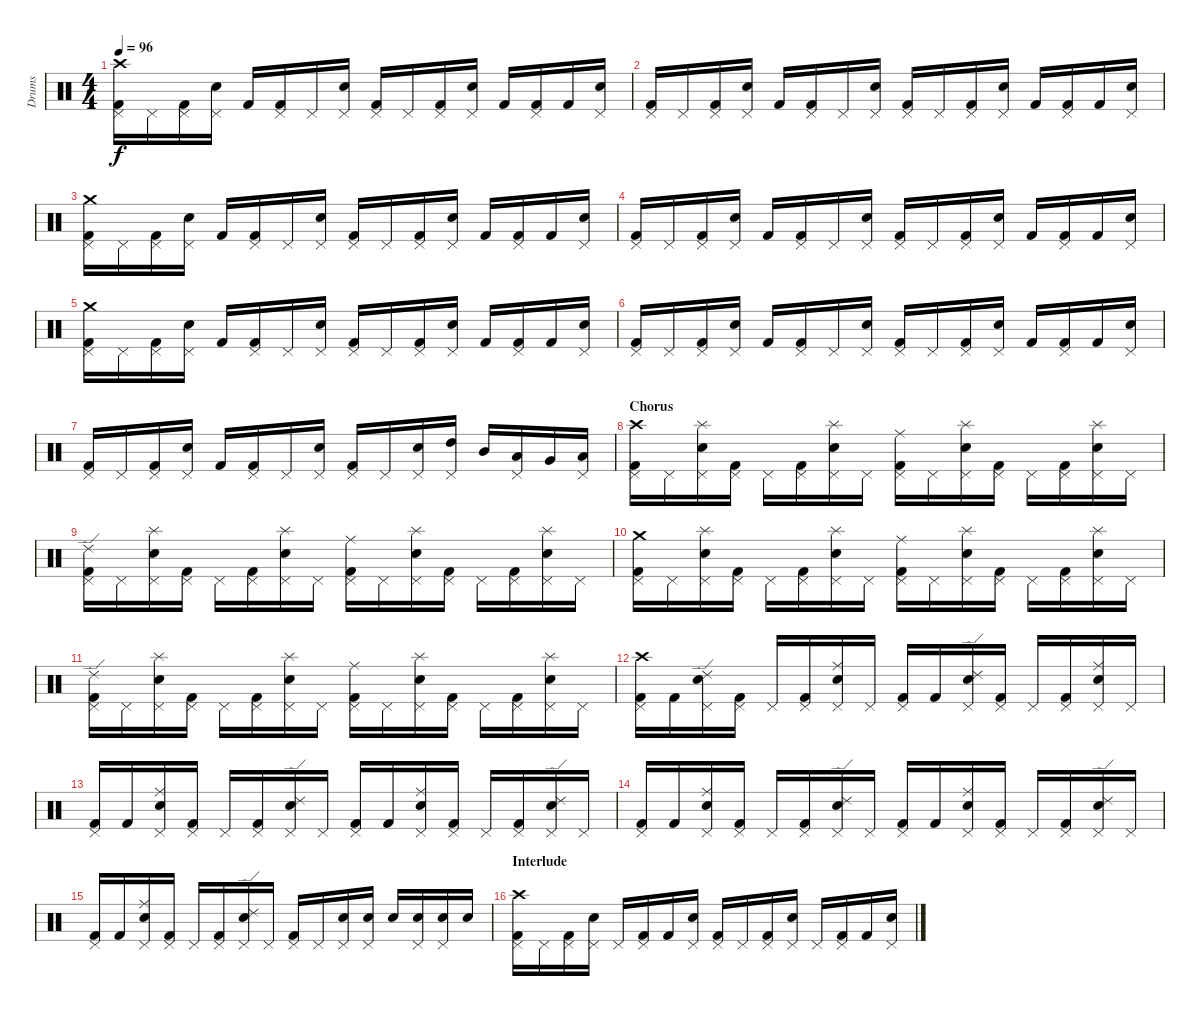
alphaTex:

\track ("Drums" "Drums") {instrument percussion}
\staff {score}
\articulation defaults
\ts (4 4)
\tempo 96
\clef neutral
\ks c
("Kick (hit) 2" "Pedal Hi-Hat (hit)" "Crash high (hit)").16{dy f} "Pedal Hi-Hat (hit)".16 ("Kick (hit) 2" "Pedal Hi-Hat (hit)").16 ("Snare (hit) 2" "Pedal Hi-Hat (hit)").16 "Kick (hit) 2".16 ("Kick (hit) 2" "Pedal Hi-Hat (hit)").16 "Pedal Hi-Hat (hit)".16 ("Snare (hit) 2" "Pedal Hi-Hat (hit)").16 ("Kick (hit) 2" "Pedal Hi-Hat (hit)").16 "Pedal Hi-Hat (hit)".16 ("Kick (hit) 2" "Pedal Hi-Hat (hit)").16 ("Snare (hit) 2" "Pedal Hi-Hat (hit)").16 "Kick (hit) 2".16 ("Kick (hit) 2" "Pedal Hi-Hat (hit)").16 "Kick (hit) 2".16 ("Snare (hit) 2" "Pedal Hi-Hat (hit)").16 |
("Kick (hit) 2" "Pedal Hi-Hat (hit)").16 "Pedal Hi-Hat (hit)".16 ("Kick (hit) 2" "Pedal Hi-Hat (hit)").16 ("Snare (hit) 2" "Pedal Hi-Hat (hit)").16 "Kick (hit) 2".16 ("Kick (hit) 2" "Pedal Hi-Hat (hit)").16 "Pedal Hi-Hat (hit)".16 ("Snare (hit) 2" "Pedal Hi-Hat (hit)").16 ("Kick (hit) 2" "Pedal Hi-Hat (hit)").16 "Pedal Hi-Hat (hit)".16 ("Kick (hit) 2" "Pedal Hi-Hat (hit)").16 ("Snare (hit) 2" "Pedal Hi-Hat (hit)").16 "Kick (hit) 2".16 ("Kick (hit) 2" "Pedal Hi-Hat (hit)").16 "Kick (hit) 2".16 ("Snare (hit) 2" "Pedal Hi-Hat (hit)").16 |
("Kick (hit) 2" "Pedal Hi-Hat (hit)" "Crash medium (hit)").16 "Pedal Hi-Hat (hit)".16 ("Kick (hit) 2" "Pedal Hi-Hat (hit)").16 ("Snare (hit) 2" "Pedal Hi-Hat (hit)").16 "Kick (hit) 2".16 ("Kick (hit) 2" "Pedal Hi-Hat (hit)").16 "Pedal Hi-Hat (hit)".16 ("Snare (hit) 2" "Pedal Hi-Hat (hit)").16 ("Kick (hit) 2" "Pedal Hi-Hat (hit)").16 "Pedal Hi-Hat (hit)".16 ("Kick (hit) 2" "Pedal Hi-Hat (hit)").16 ("Snare (hit) 2" "Pedal Hi-Hat (hit)").16 "Kick (hit) 2".16 ("Kick (hit) 2" "Pedal Hi-Hat (hit)").16 "Kick (hit) 2".16 ("Snare (hit) 2" "Pedal Hi-Hat (hit)").16 |
("Kick (hit) 2" "Pedal Hi-Hat (hit)").16 "Pedal Hi-Hat (hit)".16 ("Kick (hit) 2" "Pedal Hi-Hat (hit)").16 ("Snare (hit) 2" "Pedal Hi-Hat (hit)").16 "Kick (hit) 2".16 ("Kick (hit) 2" "Pedal Hi-Hat (hit)").16 "Pedal Hi-Hat (hit)".16 ("Snare (hit) 2" "Pedal Hi-Hat (hit)").16 ("Kick (hit) 2" "Pedal Hi-Hat (hit)").16 "Pedal Hi-Hat (hit)".16 ("Kick (hit) 2" "Pedal Hi-Hat (hit)").16 ("Snare (hit) 2" "Pedal Hi-Hat (hit)").16 "Kick (hit) 2".16 ("Kick (hit) 2" "Pedal Hi-Hat (hit)").16 "Kick (hit) 2".16 ("Snare (hit) 2" "Pedal Hi-Hat (hit)").16 |
("Kick (hit) 2" "Pedal Hi-Hat (hit)" "Crash medium (hit)").16 "Pedal Hi-Hat (hit)".16 ("Kick (hit) 2" "Pedal Hi-Hat (hit)").16 ("Snare (hit) 2" "Pedal Hi-Hat (hit)").16 "Kick (hit) 2".16 ("Kick (hit) 2" "Pedal Hi-Hat (hit)").16 "Pedal Hi-Hat (hit)".16 ("Snare (hit) 2" "Pedal Hi-Hat (hit)").16 ("Kick (hit) 2" "Pedal Hi-Hat (hit)").16 "Pedal Hi-Hat (hit)".16 ("Kick (hit) 2" "Pedal Hi-Hat (hit)").16 ("Snare (hit) 2" "Pedal Hi-Hat (hit)").16 "Kick (hit) 2".16 ("Kick (hit) 2" "Pedal Hi-Hat (hit)").16 "Kick (hit) 2".16 ("Snare (hit) 2" "Pedal Hi-Hat (hit)").16 |
("Kick (hit) 2" "Pedal Hi-Hat (hit)").16 "Pedal Hi-Hat (hit)".16 ("Kick (hit) 2" "Pedal Hi-Hat (hit)").16 ("Snare (hit) 2" "Pedal Hi-Hat (hit)").16 "Kick (hit) 2".16 ("Kick (hit) 2" "Pedal Hi-Hat (hit)").16 "Pedal Hi-Hat (hit)".16 ("Snare (hit) 2" "Pedal Hi-Hat (hit)").16 ("Kick (hit) 2" "Pedal Hi-Hat (hit)").16 "Pedal Hi-Hat (hit)".16 ("Kick (hit) 2" "Pedal Hi-Hat (hit)").16 ("Snare (hit) 2" "Pedal Hi-Hat (hit)").16 "Kick (hit) 2".16 ("Kick (hit) 2" "Pedal Hi-Hat (hit)").16 "Kick (hit) 2".16 ("Snare (hit) 2" "Pedal Hi-Hat (hit)").16 |
("Kick (hit) 2" "Pedal Hi-Hat (hit)").16 "Pedal Hi-Hat (hit)".16 ("Kick (hit) 2" "Pedal Hi-Hat (hit)").16 ("Snare (hit) 2" "Pedal Hi-Hat (hit)").16 "Kick (hit) 2".16 ("Kick (hit) 2" "Pedal Hi-Hat (hit)").16 "Pedal Hi-Hat (hit)".16 ("Snare (hit) 2" "Pedal Hi-Hat (hit)").16 ("Kick (hit) 2" "Pedal Hi-Hat (hit)").16 "Pedal Hi-Hat (hit)".16 ("Snare (hit) 2" "Pedal Hi-Hat (hit)").16 ("High Tom (hit)" "Pedal Hi-Hat (hit)").16 "Mid Tom (hit)".16 ("Low Tom (hit)" "Pedal Hi-Hat (hit)").16 "Very Low Tom (hit)".16 ("Low Floor Tom (hit)" "Pedal Hi-Hat (hit)").16 |
\section ("" "Chorus")
("Kick (hit) 2" "Pedal Hi-Hat (hit)" "Crash high (hit)").16 "Pedal Hi-Hat (hit)".16 ("Snare (hit) 2" "Pedal Hi-Hat (hit)" "Splash (hit)").16 ("Kick (hit) 2" "Pedal Hi-Hat (hit)").16 "Pedal Hi-Hat (hit)".16 ("Kick (hit) 2" "Pedal Hi-Hat (hit)").16 ("Snare (hit) 2" "Pedal Hi-Hat (hit)" "Splash (hit)").16 "Pedal Hi-Hat (hit)".16 ("Kick (hit) 2" "Pedal Hi-Hat (hit)" "Ride (middle)").16 "Pedal Hi-Hat (hit)".16 ("Snare (hit) 2" "Pedal Hi-Hat (hit)" "Splash (hit)").16 ("Kick (hit) 2" "Pedal Hi-Hat (hit)").16 "Pedal Hi-Hat (hit)".16 ("Kick (hit) 2" "Pedal Hi-Hat (hit)").16 ("Snare (hit) 2" "Pedal Hi-Hat (hit)" "Splash (hit)").16 "Pedal Hi-Hat (hit)".16 |
("Kick (hit) 2" "Pedal Hi-Hat (hit)" "Ride (edge) 2").16 "Pedal Hi-Hat (hit)".16 ("Snare (hit) 2" "Pedal Hi-Hat (hit)" "Splash (hit)").16 ("Kick (hit) 2" "Pedal Hi-Hat (hit)").16 "Pedal Hi-Hat (hit)".16 ("Kick (hit) 2" "Pedal Hi-Hat (hit)").16 ("Snare (hit) 2" "Pedal Hi-Hat (hit)" "Splash (hit)").16 "Pedal Hi-Hat (hit)".16 ("Kick (hit) 2" "Pedal Hi-Hat (hit)" "Ride (middle)").16 "Pedal Hi-Hat (hit)".16 ("Snare (hit) 2" "Pedal Hi-Hat (hit)" "Splash (hit)").16 ("Kick (hit) 2" "Pedal Hi-Hat (hit)").16 "Pedal Hi-Hat (hit)".16 ("Kick (hit) 2" "Pedal Hi-Hat (hit)").16 ("Snare (hit) 2" "Pedal Hi-Hat (hit)" "Splash (hit)").16 "Pedal Hi-Hat (hit)".16 |
("Kick (hit) 2" "Pedal Hi-Hat (hit)" "Crash medium (hit)").16 "Pedal Hi-Hat (hit)".16 ("Snare (hit) 2" "Pedal Hi-Hat (hit)" "Splash (hit)").16 ("Kick (hit) 2" "Pedal Hi-Hat (hit)").16 "Pedal Hi-Hat (hit)".16 ("Kick (hit) 2" "Pedal Hi-Hat (hit)").16 ("Snare (hit) 2" "Pedal Hi-Hat (hit)" "Splash (hit)").16 "Pedal Hi-Hat (hit)".16 ("Kick (hit) 2" "Pedal Hi-Hat (hit)" "Ride (middle)").16 "Pedal Hi-Hat (hit)".16 ("Snare (hit) 2" "Pedal Hi-Hat (hit)" "Splash (hit)").16 ("Kick (hit) 2" "Pedal Hi-Hat (hit)").16 "Pedal Hi-Hat (hit)".16 ("Kick (hit) 2" "Pedal Hi-Hat (hit)").16 ("Snare (hit) 2" "Pedal Hi-Hat (hit)" "Splash (hit)").16 "Pedal Hi-Hat (hit)".16 |
("Kick (hit) 2" "Pedal Hi-Hat (hit)" "Ride (edge) 2").16 "Pedal Hi-Hat (hit)".16 ("Snare (hit) 2" "Pedal Hi-Hat (hit)" "Splash (hit)").16 ("Kick (hit) 2" "Pedal Hi-Hat (hit)").16 "Pedal Hi-Hat (hit)".16 ("Kick (hit) 2" "Pedal Hi-Hat (hit)").16 ("Snare (hit) 2" "Pedal Hi-Hat (hit)" "Splash (hit)").16 "Pedal Hi-Hat (hit)".16 ("Kick (hit) 2" "Pedal Hi-Hat (hit)" "Ride (middle)").16 "Pedal Hi-Hat (hit)".16 ("Snare (hit) 2" "Pedal Hi-Hat (hit)" "Splash (hit)").16 ("Kick (hit) 2" "Pedal Hi-Hat (hit)").16 "Pedal Hi-Hat (hit)".16 ("Kick (hit) 2" "Pedal Hi-Hat (hit)").16 ("Snare (hit) 2" "Pedal Hi-Hat (hit)" "Splash (hit)").16 "Pedal Hi-Hat (hit)".16 |
("Kick (hit) 2" "Pedal Hi-Hat (hit)" "Crash high (hit)").16 "Kick (hit) 2".16 ("Snare (hit) 2" "Pedal Hi-Hat (hit)" "Ride (edge) 2").16 ("Kick (hit) 2" "Pedal Hi-Hat (hit)").16 "Pedal Hi-Hat (hit)".16 ("Kick (hit) 2" "Pedal Hi-Hat (hit)").16 ("Snare (hit) 2" "Pedal Hi-Hat (hit)" "Ride (middle)").16 "Pedal Hi-Hat (hit)".16 ("Kick (hit) 2" "Pedal Hi-Hat (hit)").16 "Kick (hit) 2".16 ("Snare (hit) 2" "Pedal Hi-Hat (hit)" "Ride (edge) 2").16 ("Kick (hit) 2" "Pedal Hi-Hat (hit)").16 "Pedal Hi-Hat (hit)".16 ("Kick (hit) 2" "Pedal Hi-Hat (hit)").16 ("Snare (hit) 2" "Pedal Hi-Hat (hit)" "Ride (middle)").16 "Pedal Hi-Hat (hit)".16 |
("Kick (hit) 2" "Pedal Hi-Hat (hit)").16 "Kick (hit) 2".16 ("Snare (hit) 2" "Pedal Hi-Hat (hit)" "Ride (middle)").16 ("Kick (hit) 2" "Pedal Hi-Hat (hit)").16 "Pedal Hi-Hat (hit)".16 ("Kick (hit) 2" "Pedal Hi-Hat (hit)").16 ("Snare (hit) 2" "Pedal Hi-Hat (hit)" "Ride (edge) 2").16 "Pedal Hi-Hat (hit)".16 ("Kick (hit) 2" "Pedal Hi-Hat (hit)").16 "Kick (hit) 2".16 ("Snare (hit) 2" "Pedal Hi-Hat (hit)" "Ride (middle)").16 ("Kick (hit) 2" "Pedal Hi-Hat (hit)").16 "Pedal Hi-Hat (hit)".16 ("Kick (hit) 2" "Pedal Hi-Hat (hit)").16 ("Snare (hit) 2" "Pedal Hi-Hat (hit)" "Ride (edge) 2").16 "Pedal Hi-Hat (hit)".16 |
("Kick (hit) 2" "Pedal Hi-Hat (hit)").16 "Kick (hit) 2".16 ("Snare (hit) 2" "Pedal Hi-Hat (hit)" "Ride (middle)").16 ("Kick (hit) 2" "Pedal Hi-Hat (hit)").16 "Pedal Hi-Hat (hit)".16 ("Kick (hit) 2" "Pedal Hi-Hat (hit)").16 ("Snare (hit) 2" "Pedal Hi-Hat (hit)" "Ride (edge) 2").16 "Pedal Hi-Hat (hit)".16 ("Kick (hit) 2" "Pedal Hi-Hat (hit)").16 "Kick (hit) 2".16 ("Snare (hit) 2" "Pedal Hi-Hat (hit)" "Ride (middle)").16 ("Kick (hit) 2" "Pedal Hi-Hat (hit)").16 "Pedal Hi-Hat (hit)".16 ("Kick (hit) 2" "Pedal Hi-Hat (hit)").16 ("Snare (hit) 2" "Pedal Hi-Hat (hit)" "Ride (edge) 2").16 "Pedal Hi-Hat (hit)".16 |
("Kick (hit) 2" "Pedal Hi-Hat (hit)").16 "Kick (hit) 2".16 ("Snare (hit) 2" "Pedal Hi-Hat (hit)" "Ride (middle)").16 ("Kick (hit) 2" "Pedal Hi-Hat (hit)").16 "Pedal Hi-Hat (hit)".16 ("Kick (hit) 2" "Pedal Hi-Hat (hit)").16 ("Snare (hit) 2" "Pedal Hi-Hat (hit)" "Ride (edge) 2").16 "Pedal Hi-Hat (hit)".16 ("Kick (hit) 2" "Pedal Hi-Hat (hit)").16 "Pedal Hi-Hat (hit)".16 ("Snare (hit) 2" "Pedal Hi-Hat (hit)").16 ("Snare (hit) 2" "Pedal Hi-Hat (hit)").16 "Snare (hit) 2".16 ("Snare (hit) 2" "Pedal Hi-Hat (hit)").16 ("Snare (hit) 2" "Pedal Hi-Hat (hit)").16 "Snare (hit) 2".16 |
\section ("" "Interlude")
("Kick (hit) 2" "Pedal Hi-Hat (hit)" "Crash high (hit)").16 "Pedal Hi-Hat (hit)".16 ("Kick (hit) 2" "Pedal Hi-Hat (hit)").16 ("Snare (hit) 2" "Pedal Hi-Hat (hit)").16 "Pedal Hi-Hat (hit)".16 ("Kick (hit) 2" "Pedal Hi-Hat (hit)").16 "Kick (hit) 2".16 ("Snare (hit) 2" "Pedal Hi-Hat (hit)").16 ("Kick (hit) 2" "Pedal Hi-Hat (hit)").16 "Pedal Hi-Hat (hit)".16 ("Kick (hit) 2" "Pedal Hi-Hat (hit)").16 ("Snare (hit) 2" "Pedal Hi-Hat (hit)").16 "Pedal Hi-Hat (hit)".16 ("Kick (hit) 2" "Pedal Hi-Hat (hit)").16 "Kick (hit) 2".16 ("Snare (hit) 2" "Pedal Hi-Hat (hit)").16
